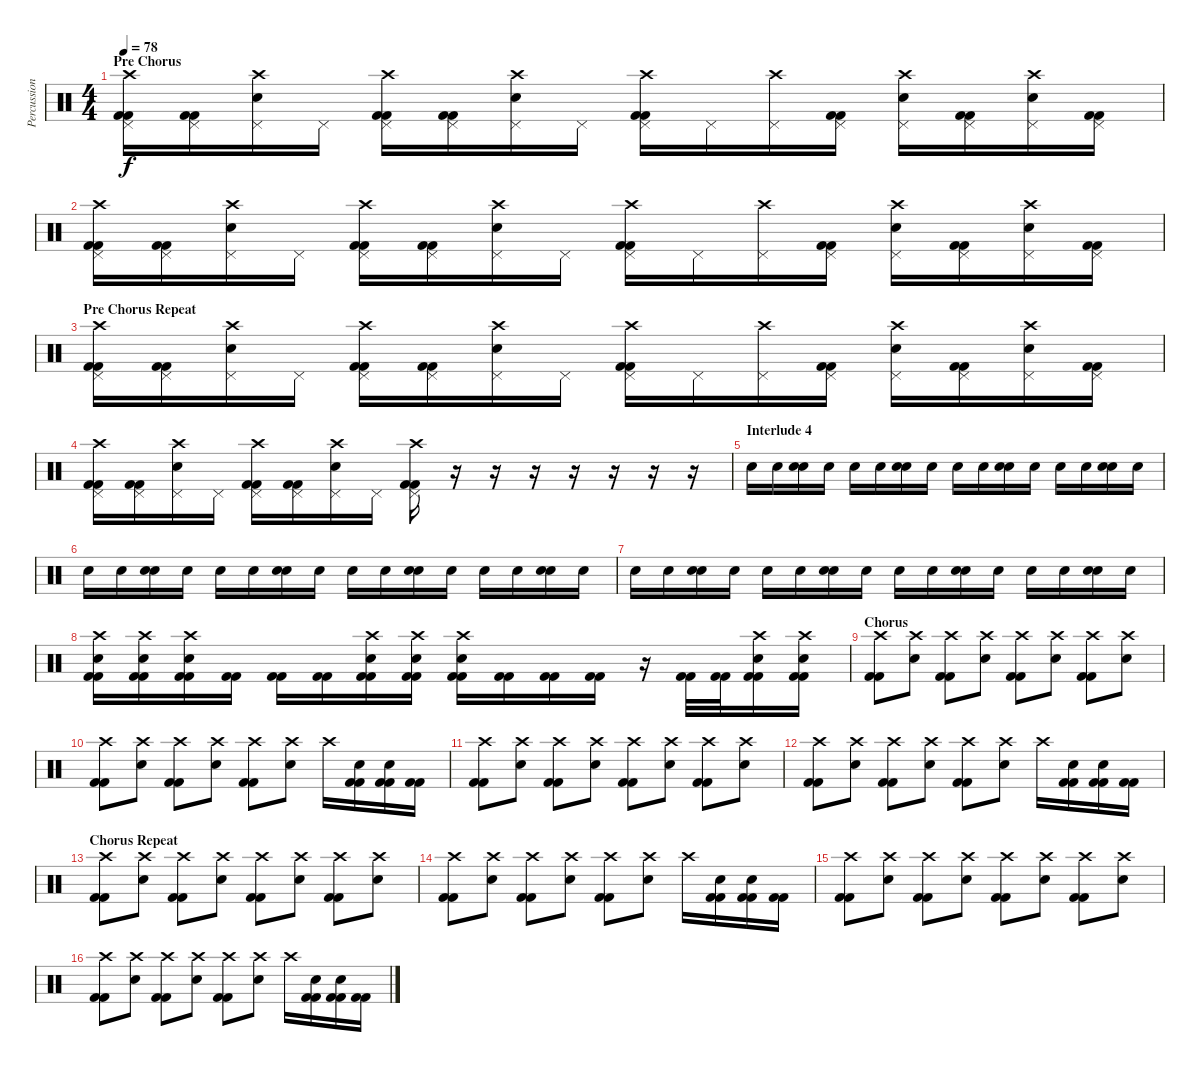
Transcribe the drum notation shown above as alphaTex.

\track ("Percussion" "Percussion") {instrument percussion}
\staff {score}
\articulation defaults
\ts (4 4)
\section ("" "Pre Chorus")
\tempo 78
\clef neutral
\ks c
("Crash high (hit)" "Pedal Hi-Hat (hit)" "Kick (hit) 2" "Kick (hit) 2").16{dy f} ("Pedal Hi-Hat (hit)" "Kick (hit) 2" "Kick (hit) 2").16 ("Crash high (hit)" "Pedal Hi-Hat (hit)" "Electric Snare (hit)").16 "Pedal Hi-Hat (hit)".16 ("Crash high (hit)" "Pedal Hi-Hat (hit)" "Kick (hit) 2" "Kick (hit) 2").16 ("Pedal Hi-Hat (hit)" "Kick (hit) 2" "Kick (hit) 2").16 ("Crash high (hit)" "Pedal Hi-Hat (hit)" "Electric Snare (hit)").16 "Pedal Hi-Hat (hit)".16 ("Crash high (hit)" "Pedal Hi-Hat (hit)" "Kick (hit) 2" "Kick (hit) 2").16 "Pedal Hi-Hat (hit)".16 ("Crash high (hit)" "Pedal Hi-Hat (hit)").16 ("Pedal Hi-Hat (hit)" "Kick (hit) 2" "Kick (hit) 2").16 ("Crash high (hit)" "Pedal Hi-Hat (hit)" "Electric Snare (hit)").16 ("Pedal Hi-Hat (hit)" "Kick (hit) 2" "Kick (hit) 2").16 ("Crash high (hit)" "Pedal Hi-Hat (hit)" "Electric Snare (hit)").16 ("Pedal Hi-Hat (hit)" "Kick (hit) 2" "Kick (hit) 2").16 |
("Crash high (hit)" "Pedal Hi-Hat (hit)" "Kick (hit) 2" "Kick (hit) 2").16 ("Pedal Hi-Hat (hit)" "Kick (hit) 2" "Kick (hit) 2").16 ("Crash high (hit)" "Pedal Hi-Hat (hit)" "Electric Snare (hit)").16 "Pedal Hi-Hat (hit)".16 ("Crash high (hit)" "Pedal Hi-Hat (hit)" "Kick (hit) 2" "Kick (hit) 2").16 ("Pedal Hi-Hat (hit)" "Kick (hit) 2" "Kick (hit) 2").16 ("Crash high (hit)" "Pedal Hi-Hat (hit)" "Electric Snare (hit)").16 "Pedal Hi-Hat (hit)".16 ("Crash high (hit)" "Pedal Hi-Hat (hit)" "Kick (hit) 2" "Kick (hit) 2").16 "Pedal Hi-Hat (hit)".16 ("Crash high (hit)" "Pedal Hi-Hat (hit)").16 ("Pedal Hi-Hat (hit)" "Kick (hit) 2" "Kick (hit) 2").16 ("Crash high (hit)" "Pedal Hi-Hat (hit)" "Electric Snare (hit)").16 ("Pedal Hi-Hat (hit)" "Kick (hit) 2" "Kick (hit) 2").16 ("Crash high (hit)" "Pedal Hi-Hat (hit)" "Electric Snare (hit)").16 ("Pedal Hi-Hat (hit)" "Kick (hit) 2" "Kick (hit) 2").16 |
\section ("" "Pre Chorus Repeat")
("Crash high (hit)" "Pedal Hi-Hat (hit)" "Kick (hit) 2" "Kick (hit) 2").16 ("Pedal Hi-Hat (hit)" "Kick (hit) 2" "Kick (hit) 2").16 ("Crash high (hit)" "Pedal Hi-Hat (hit)" "Electric Snare (hit)").16 "Pedal Hi-Hat (hit)".16 ("Crash high (hit)" "Pedal Hi-Hat (hit)" "Kick (hit) 2" "Kick (hit) 2").16 ("Pedal Hi-Hat (hit)" "Kick (hit) 2" "Kick (hit) 2").16 ("Crash high (hit)" "Pedal Hi-Hat (hit)" "Electric Snare (hit)").16 "Pedal Hi-Hat (hit)".16 ("Crash high (hit)" "Pedal Hi-Hat (hit)" "Kick (hit) 2" "Kick (hit) 2").16 "Pedal Hi-Hat (hit)".16 ("Crash high (hit)" "Pedal Hi-Hat (hit)").16 ("Pedal Hi-Hat (hit)" "Kick (hit) 2" "Kick (hit) 2").16 ("Crash high (hit)" "Pedal Hi-Hat (hit)" "Electric Snare (hit)").16 ("Pedal Hi-Hat (hit)" "Kick (hit) 2" "Kick (hit) 2").16 ("Crash high (hit)" "Pedal Hi-Hat (hit)" "Electric Snare (hit)").16 ("Pedal Hi-Hat (hit)" "Kick (hit) 2" "Kick (hit) 2").16 |
("Crash high (hit)" "Pedal Hi-Hat (hit)" "Kick (hit) 2" "Kick (hit) 2").16 ("Pedal Hi-Hat (hit)" "Kick (hit) 2" "Kick (hit) 2").16 ("Crash high (hit)" "Pedal Hi-Hat (hit)" "Electric Snare (hit)").16 "Pedal Hi-Hat (hit)".16 ("Crash high (hit)" "Pedal Hi-Hat (hit)" "Kick (hit) 2" "Kick (hit) 2").16 ("Pedal Hi-Hat (hit)" "Kick (hit) 2" "Kick (hit) 2").16 ("Crash high (hit)" "Pedal Hi-Hat (hit)" "Electric Snare (hit)").16 "Pedal Hi-Hat (hit)".16 ("Crash high (hit)" "Pedal Hi-Hat (hit)" "Kick (hit) 2" "Kick (hit) 2").16 r.16 r.16 r.16 r.16 r.16 r.16 r.16 |
\section ("" "Interlude 4")
"Electric Snare (hit)".16 "Electric Snare (hit)".16 ("Electric Snare (hit)" "Electric Snare (hit)").16 "Electric Snare (hit)".16 "Electric Snare (hit)".16 "Electric Snare (hit)".16 ("Electric Snare (hit)" "Electric Snare (hit)").16 "Electric Snare (hit)".16 "Electric Snare (hit)".16 "Electric Snare (hit)".16 ("Electric Snare (hit)" "Electric Snare (hit)").16 "Electric Snare (hit)".16 "Electric Snare (hit)".16 "Electric Snare (hit)".16 ("Electric Snare (hit)" "Electric Snare (hit)").16 "Electric Snare (hit)".16 |
"Electric Snare (hit)".16 "Electric Snare (hit)".16 ("Electric Snare (hit)" "Electric Snare (hit)").16 "Electric Snare (hit)".16 "Electric Snare (hit)".16 "Electric Snare (hit)".16 ("Electric Snare (hit)" "Electric Snare (hit)").16 "Electric Snare (hit)".16 "Electric Snare (hit)".16 "Electric Snare (hit)".16 ("Electric Snare (hit)" "Electric Snare (hit)").16 "Electric Snare (hit)".16 "Electric Snare (hit)".16 "Electric Snare (hit)".16 ("Electric Snare (hit)" "Electric Snare (hit)").16 "Electric Snare (hit)".16 |
"Electric Snare (hit)".16 "Electric Snare (hit)".16 ("Electric Snare (hit)" "Electric Snare (hit)").16 "Electric Snare (hit)".16 "Electric Snare (hit)".16 "Electric Snare (hit)".16 ("Electric Snare (hit)" "Electric Snare (hit)").16 "Electric Snare (hit)".16 "Electric Snare (hit)".16 "Electric Snare (hit)".16 ("Electric Snare (hit)" "Electric Snare (hit)").16 "Electric Snare (hit)".16 "Electric Snare (hit)".16 "Electric Snare (hit)".16 ("Electric Snare (hit)" "Electric Snare (hit)").16 "Electric Snare (hit)".16 |
("Crash high (hit)" "Electric Snare (hit)" "Kick (hit) 2" "Kick (hit) 2").16 ("Crash high (hit)" "Electric Snare (hit)" "Kick (hit) 2" "Kick (hit) 2").16 ("Crash high (hit)" "Electric Snare (hit)" "Kick (hit) 2" "Kick (hit) 2").16 ("Kick (hit) 2" "Kick (hit) 2").16 ("Kick (hit) 2" "Kick (hit) 2").16 ("Kick (hit) 2" "Kick (hit) 2").16 ("Crash high (hit)" "Electric Snare (hit)" "Kick (hit) 2" "Kick (hit) 2").16 ("Crash high (hit)" "Electric Snare (hit)" "Kick (hit) 2" "Kick (hit) 2").16 ("Crash high (hit)" "Electric Snare (hit)" "Kick (hit) 2" "Kick (hit) 2").16 ("Kick (hit) 2" "Kick (hit) 2").16 ("Kick (hit) 2" "Kick (hit) 2").16 ("Kick (hit) 2" "Kick (hit) 2").16 r.16 ("Kick (hit) 2" "Kick (hit) 2").32 ("Kick (hit) 2" "Kick (hit) 2").32 ("Crash high (hit)" "Electric Snare (hit)" "Kick (hit) 2" "Kick (hit) 2").16 ("Crash high (hit)" "Electric Snare (hit)" "Kick (hit) 2" "Kick (hit) 2").16 |
\section ("" "Chorus")
("Crash high (hit)" "Kick (hit) 2" "Kick (hit) 2").8 ("Crash high (hit)" "Electric Snare (hit)").8 ("Crash high (hit)" "Kick (hit) 2" "Kick (hit) 2").8 ("Crash high (hit)" "Electric Snare (hit)").8 ("Crash high (hit)" "Kick (hit) 2" "Kick (hit) 2").8 ("Crash high (hit)" "Electric Snare (hit)").8 ("Crash high (hit)" "Kick (hit) 2" "Kick (hit) 2").8 ("Crash high (hit)" "Electric Snare (hit)").8 |
("Crash high (hit)" "Kick (hit) 2" "Kick (hit) 2").8 ("Crash high (hit)" "Electric Snare (hit)").8 ("Crash high (hit)" "Kick (hit) 2" "Kick (hit) 2").8 ("Crash high (hit)" "Electric Snare (hit)").8 ("Crash high (hit)" "Kick (hit) 2" "Kick (hit) 2").8 ("Crash high (hit)" "Electric Snare (hit)").8 "Crash high (hit)".16 ("Electric Snare (hit)" "Kick (hit) 2" "Kick (hit) 2").16 ("Electric Snare (hit)" "Kick (hit) 2" "Kick (hit) 2").16 ("Kick (hit) 2" "Kick (hit) 2").16 |
("Crash high (hit)" "Kick (hit) 2" "Kick (hit) 2").8 ("Crash high (hit)" "Electric Snare (hit)").8 ("Crash high (hit)" "Kick (hit) 2" "Kick (hit) 2").8 ("Crash high (hit)" "Electric Snare (hit)").8 ("Crash high (hit)" "Kick (hit) 2" "Kick (hit) 2").8 ("Crash high (hit)" "Electric Snare (hit)").8 ("Crash high (hit)" "Kick (hit) 2" "Kick (hit) 2").8 ("Crash high (hit)" "Electric Snare (hit)").8 |
("Crash high (hit)" "Kick (hit) 2" "Kick (hit) 2").8 ("Crash high (hit)" "Electric Snare (hit)").8 ("Crash high (hit)" "Kick (hit) 2" "Kick (hit) 2").8 ("Crash high (hit)" "Electric Snare (hit)").8 ("Crash high (hit)" "Kick (hit) 2" "Kick (hit) 2").8 ("Crash high (hit)" "Electric Snare (hit)").8 "Crash high (hit)".16 ("Electric Snare (hit)" "Kick (hit) 2" "Kick (hit) 2").16 ("Electric Snare (hit)" "Kick (hit) 2" "Kick (hit) 2").16 ("Kick (hit) 2" "Kick (hit) 2").16 |
\section ("" "Chorus Repeat")
("Crash high (hit)" "Kick (hit) 2" "Kick (hit) 2").8 ("Crash high (hit)" "Electric Snare (hit)").8 ("Crash high (hit)" "Kick (hit) 2" "Kick (hit) 2").8 ("Crash high (hit)" "Electric Snare (hit)").8 ("Crash high (hit)" "Kick (hit) 2" "Kick (hit) 2").8 ("Crash high (hit)" "Electric Snare (hit)").8 ("Crash high (hit)" "Kick (hit) 2" "Kick (hit) 2").8 ("Crash high (hit)" "Electric Snare (hit)").8 |
("Crash high (hit)" "Kick (hit) 2" "Kick (hit) 2").8 ("Crash high (hit)" "Electric Snare (hit)").8 ("Crash high (hit)" "Kick (hit) 2" "Kick (hit) 2").8 ("Crash high (hit)" "Electric Snare (hit)").8 ("Crash high (hit)" "Kick (hit) 2" "Kick (hit) 2").8 ("Crash high (hit)" "Electric Snare (hit)").8 "Crash high (hit)".16 ("Electric Snare (hit)" "Kick (hit) 2" "Kick (hit) 2").16 ("Electric Snare (hit)" "Kick (hit) 2" "Kick (hit) 2").16 ("Kick (hit) 2" "Kick (hit) 2").16 |
("Crash high (hit)" "Kick (hit) 2" "Kick (hit) 2").8 ("Crash high (hit)" "Electric Snare (hit)").8 ("Crash high (hit)" "Kick (hit) 2" "Kick (hit) 2").8 ("Crash high (hit)" "Electric Snare (hit)").8 ("Crash high (hit)" "Kick (hit) 2" "Kick (hit) 2").8 ("Crash high (hit)" "Electric Snare (hit)").8 ("Crash high (hit)" "Kick (hit) 2" "Kick (hit) 2").8 ("Crash high (hit)" "Electric Snare (hit)").8 |
("Crash high (hit)" "Kick (hit) 2" "Kick (hit) 2").8 ("Crash high (hit)" "Electric Snare (hit)").8 ("Crash high (hit)" "Kick (hit) 2" "Kick (hit) 2").8 ("Crash high (hit)" "Electric Snare (hit)").8 ("Crash high (hit)" "Kick (hit) 2" "Kick (hit) 2").8 ("Crash high (hit)" "Electric Snare (hit)").8 "Crash high (hit)".16 ("Electric Snare (hit)" "Kick (hit) 2" "Kick (hit) 2").16 ("Electric Snare (hit)" "Kick (hit) 2" "Kick (hit) 2").16 ("Kick (hit) 2" "Kick (hit) 2").16
